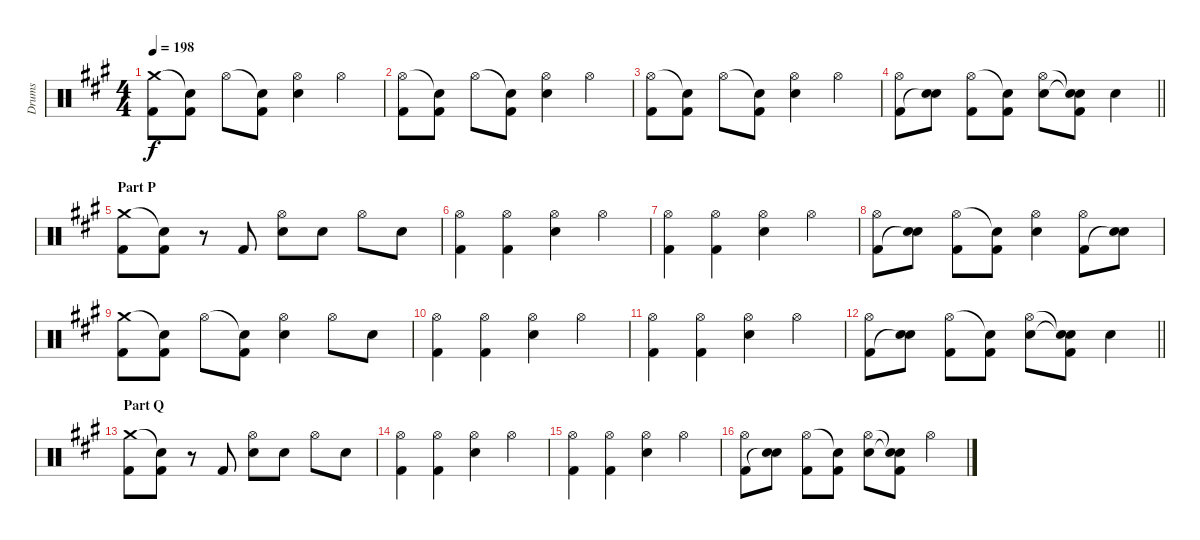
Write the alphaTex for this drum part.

\track ("Drums" "Drums") {instrument percussion}
\staff {score}
\articulation defaults
\ts (4 4)
\tempo 198
\clef neutral
\ks a
("Crash medium (hit)" "Kick (hit) 2").8{dy f} ("Snare (hit)"{t} "Kick (hit) 2").8 "Hi-Hat (open)".8 ("Snare (hit)"{t} "Kick (hit) 2").8 ("Hi-Hat (open)" "Electric Snare (hit)").4 "Hi-Hat (open)".4 |
("Hi-Hat (open)" "Kick (hit) 2").8 ("Snare (hit)"{t} "Kick (hit) 2").8 "Hi-Hat (open)".8 ("Snare (hit)"{t} "Kick (hit) 2").8 ("Hi-Hat (open)" "Electric Snare (hit)").4 "Hi-Hat (open)".4 |
("Hi-Hat (open)" "Kick (hit) 2").8 ("Snare (hit)"{t} "Kick (hit) 2").8 "Hi-Hat (open)".8 ("Snare (hit)"{t} "Kick (hit) 2").8 ("Hi-Hat (open)" "Electric Snare (hit)").4 "Hi-Hat (open)".4 |
\barLineRight lightlight
("Hi-Hat (open)" "Kick (hit) 2").8 ("Electric Snare (hit)" "Snare (hit)"{t}).8 ("Hi-Hat (open)" "Kick (hit) 2").8 ("Snare (hit)"{t} "Kick (hit) 2").8 ("Hi-Hat (open)" "Electric Snare (hit)").8 ("Snare (hit)"{t} "Snare (hit)"{t} "Kick (hit) 2").8 "Electric Snare (hit)".4 |
\section ("" "Part P")
("Crash medium (hit)" "Kick (hit) 2").8 ("Snare (hit)"{t} "Kick (hit) 2").8 r.8 "Kick (hit) 2".8 ("Hi-Hat (open)" "Electric Snare (hit)").8 "Electric Snare (hit)".8 "Hi-Hat (open)".8 "Electric Snare (hit)".8 |
("Hi-Hat (open)" "Kick (hit) 2").4 ("Hi-Hat (open)" "Kick (hit) 2").4 ("Hi-Hat (open)" "Electric Snare (hit)").4 "Hi-Hat (open)".4 |
("Hi-Hat (open)" "Kick (hit) 2").4 ("Hi-Hat (open)" "Kick (hit) 2").4 ("Hi-Hat (open)" "Electric Snare (hit)").4 "Hi-Hat (open)".4 |
("Hi-Hat (open)" "Kick (hit) 2").8 ("Electric Snare (hit)" "Snare (hit)"{t}).8 ("Hi-Hat (open)" "Kick (hit) 2").8 ("Snare (hit)"{t} "Kick (hit) 2").8 ("Hi-Hat (open)" "Electric Snare (hit)").4 ("Hi-Hat (open)" "Kick (hit) 2").8 ("Electric Snare (hit)" "Snare (hit)"{t}).8 |
("Crash medium (hit)" "Kick (hit) 2").8 ("Snare (hit)"{t} "Kick (hit) 2").8 "Hi-Hat (open)".8 ("Snare (hit)"{t} "Kick (hit) 2").8 ("Hi-Hat (open)" "Electric Snare (hit)").4 "Hi-Hat (open)".8 "Electric Snare (hit)".8 |
("Hi-Hat (open)" "Kick (hit) 2").4 ("Hi-Hat (open)" "Kick (hit) 2").4 ("Hi-Hat (open)" "Electric Snare (hit)").4 "Hi-Hat (open)".4 |
("Hi-Hat (open)" "Kick (hit) 2").4 ("Hi-Hat (open)" "Kick (hit) 2").4 ("Hi-Hat (open)" "Electric Snare (hit)").4 "Hi-Hat (open)".4 |
\barLineRight lightlight
("Hi-Hat (open)" "Kick (hit) 2").8 ("Electric Snare (hit)" "Snare (hit)"{t}).8 ("Hi-Hat (open)" "Kick (hit) 2").8 ("Snare (hit)"{t} "Kick (hit) 2").8 ("Hi-Hat (open)" "Electric Snare (hit)").8 ("Snare (hit)"{t} "Snare (hit)"{t} "Kick (hit) 2").8 "Electric Snare (hit)".4 |
\section ("" "Part Q")
("Crash medium (hit)" "Kick (hit) 2").8 ("Snare (hit)"{t} "Kick (hit) 2").8 r.8 "Kick (hit) 2".8 ("Hi-Hat (open)" "Electric Snare (hit)").8 "Electric Snare (hit)".8 "Hi-Hat (open)".8 "Electric Snare (hit)".8 |
("Hi-Hat (open)" "Kick (hit) 2").4 ("Hi-Hat (open)" "Kick (hit) 2").4 ("Hi-Hat (open)" "Electric Snare (hit)").4 "Hi-Hat (open)".4 |
("Hi-Hat (open)" "Kick (hit) 2").4 ("Hi-Hat (open)" "Kick (hit) 2").4 ("Hi-Hat (open)" "Electric Snare (hit)").4 "Hi-Hat (open)".4 |
("Hi-Hat (open)" "Kick (hit) 2").8 ("Electric Snare (hit)" "Snare (hit)"{t}).8 ("Hi-Hat (open)" "Kick (hit) 2").8 ("Snare (hit)"{t} "Kick (hit) 2").8 ("Hi-Hat (open)" "Electric Snare (hit)").8 ("Snare (hit)"{t} "Snare (hit)"{t} "Kick (hit) 2").8 "Hi-Hat (open)".4
